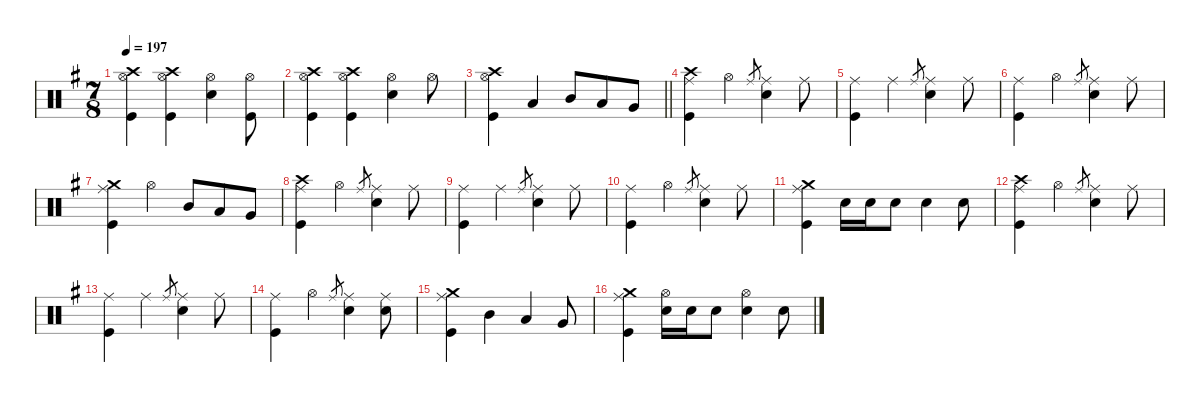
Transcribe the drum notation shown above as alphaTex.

\defaultSystemsLayout 4
\hideDynamics
\bracketExtendMode nobrackets
\singleTrackTrackNamePolicy hidden
\multiTrackTrackNamePolicy hidden
\firstSystemTrackNameMode fullname
\firstSystemTrackNameOrientation horizontal
\otherSystemsTrackNameOrientation horizontal
\track ("Drums" "drm.") {defaultSystemsLayout 4 instrument percussion}
\staff {score}
\articulation defaults
\ts (7 8)
\tempo 197
\clef neutral
\ks eminor
("Hi-Hat (open)"{acc forcenatural} "Crash high (hit)"{acc forcenatural} "Kick (hit)"{acc forcenatural}).4{dy f beam Down} ("Hi-Hat (open)"{acc forcenatural} "Crash high (hit)"{acc forcenatural} "Kick (hit)"{acc forcenatural}).4{beam Down} ("Hi-Hat (open)"{acc forcenatural} "Snare (hit) 2"{acc forcenatural}).4{beam Down} ("Hi-Hat (open)"{acc forcenatural} "Kick (hit)"{acc forcenatural}).8{beam Down} |
("Hi-Hat (open)"{acc forcenatural} "Crash high (hit)"{acc forcenatural} "Kick (hit)"{acc forcenatural}).4{beam Down} ("Hi-Hat (open)"{acc forcenatural} "Crash high (hit)"{acc forcenatural} "Kick (hit)"{acc forcenatural}).4{beam Down} ("Hi-Hat (open)"{acc forcenatural} "Snare (hit) 2"{acc forcenatural}).4{beam Down} "Hi-Hat (open)"{acc forcenatural}.8{beam Down} |
\barLineRight lightlight
("Hi-Hat (open)"{acc forcenatural} "Crash high (hit)"{acc forcenatural} "Kick (hit)"{acc forcenatural}).4{beam Down} "Low Tom (hit)"{acc forcenatural}.4{beam Up} "Mid Tom (hit)"{acc forcenatural}.8{beam Up} "Low Tom (hit)"{acc forcenatural}.8{beam Up} "Very Low Tom (hit)"{acc forcenatural}.8{beam Up} |
("Crash high (hit)"{acc forcenatural} "Ride (middle)"{acc forcenatural} "Kick (hit)"{acc forcenatural}).4{dy mf beam Down} "Hi-Hat (open)"{acc forcenatural}.4{dy f beam Down} "Ride (middle)"{acc forcenatural}.8{gr dy mf beam Up} ("Ride (middle)"{acc forcenatural} "Snare (hit) 2"{acc forcenatural}).4{dy f beam Down} "Ride (middle)"{acc forcenatural}.8{beam Down} |
("Ride (middle)"{acc forcenatural} "Kick (hit)"{acc forcenatural}).4{beam Down} "Ride (middle)"{acc forcenatural}.4{beam Down} "Ride (middle)"{acc forcenatural}.8{gr dy mf beam Up} ("Ride (middle)"{acc forcenatural} "Snare (hit) 2"{acc forcenatural}).4{dy f beam Down} "Ride (middle)"{acc forcenatural}.8{beam Down} |
("Ride (middle)"{acc forcenatural} "Kick (hit)"{acc forcenatural}).4{beam Down} "Hi-Hat (open)"{acc forcenatural}.4{beam Down} "Ride (middle)"{acc forcenatural}.8{gr dy mf beam Up} ("Ride (middle)"{acc forcenatural} "Snare (hit) 2"{acc forcenatural}).4{dy f beam Down} "Ride (middle)"{acc forcenatural}.8{beam Down} |
("Crash medium (hit)"{acc forcenatural} "Ride (middle)"{acc forcenatural} "Kick (hit)"{acc forcenatural}).4{dy mp beam Down} "Hi-Hat (open)"{acc forcenatural}.4{dy f beam Down} "Mid Tom (hit)"{acc forcenatural}.8{beam Up} "Low Tom (hit)"{acc forcenatural}.8{beam Up} "Very Low Tom (hit)"{acc forcenatural}.8{beam Up} |
("Crash high (hit)"{acc forcenatural} "Ride (middle)"{acc forcenatural} "Kick (hit)"{acc forcenatural}).4{dy mf beam Down} "Hi-Hat (open)"{acc forcenatural}.4{dy f beam Down} "Ride (middle)"{acc forcenatural}.8{gr dy mf beam Up} ("Ride (middle)"{acc forcenatural} "Snare (hit) 2"{acc forcenatural}).4{dy f beam Down} "Ride (middle)"{acc forcenatural}.8{beam Down} |
("Ride (middle)"{acc forcenatural} "Kick (hit)"{acc forcenatural}).4{beam Down} "Ride (middle)"{acc forcenatural}.4{beam Down} "Ride (middle)"{acc forcenatural}.8{gr dy mf beam Up} ("Ride (middle)"{acc forcenatural} "Snare (hit) 2"{acc forcenatural}).4{dy f beam Down} "Ride (middle)"{acc forcenatural}.8{beam Down} |
("Ride (middle)"{acc forcenatural} "Kick (hit)"{acc forcenatural}).4{beam Down} "Hi-Hat (open)"{acc forcenatural}.4{beam Down} "Ride (middle)"{acc forcenatural}.8{gr dy mf beam Up} ("Ride (middle)"{acc forcenatural} "Snare (hit) 2"{acc forcenatural}).4{dy f beam Down} "Ride (middle)"{acc forcenatural}.8{beam Down} |
("Crash medium (hit)"{acc forcenatural} "Ride (middle)"{acc forcenatural} "Kick (hit)"{acc forcenatural}).4{dy mp beam Down} "Snare (hit) 2"{acc forcenatural}.16{beam Down} "Snare (hit) 2"{acc forcenatural}.16{beam Down} "Snare (hit) 2"{acc forcenatural}.8{dy mf beam Down} "Snare (hit) 2"{acc forcenatural}.4{dy f beam Down} "Snare (hit) 2"{acc forcenatural}.8{beam Down} |
("Crash high (hit)"{acc forcenatural} "Ride (middle)"{acc forcenatural} "Kick (hit)"{acc forcenatural}).4{dy mf beam Down} "Hi-Hat (open)"{acc forcenatural}.4{dy f beam Down} "Ride (middle)"{acc forcenatural}.8{gr dy mf beam Up} ("Ride (middle)"{acc forcenatural} "Snare (hit) 2"{acc forcenatural}).4{dy f beam Down} "Ride (middle)"{acc forcenatural}.8{beam Down} |
("Ride (middle)"{acc forcenatural} "Kick (hit)"{acc forcenatural}).4{beam Down} "Ride (middle)"{acc forcenatural}.4{beam Down} "Ride (middle)"{acc forcenatural}.8{gr dy mf beam Up} ("Ride (middle)"{acc forcenatural} "Snare (hit) 2"{acc forcenatural}).4{dy f beam Down} "Ride (middle)"{acc forcenatural}.8{beam Down} |
("Ride (middle)"{acc forcenatural} "Kick (hit)"{acc forcenatural}).4{beam Down} "Hi-Hat (open)"{acc forcenatural}.4{beam Down} "Ride (middle)"{acc forcenatural}.8{gr dy mf beam Up} ("Ride (middle)"{acc forcenatural} "Snare (hit) 2"{acc forcenatural}).4{dy f beam Down} ("Ride (middle)"{acc forcenatural} "Snare (hit) 2"{acc forcenatural}).8{beam Down} |
("Crash medium (hit)"{acc forcenatural} "Ride (middle)"{acc forcenatural} "Kick (hit)"{acc forcenatural}).4{dy mp beam Down} "Mid Tom (hit)"{acc forcenatural}.4{dy f beam Down} "Low Tom (hit)"{acc forcenatural}.4{beam Up} "Very Low Tom (hit)"{acc forcenatural}.8{beam Up} |
("Crash medium (hit)"{acc forcenatural} "Ride (middle)"{acc forcenatural} "Kick (hit)"{acc forcenatural}).4{dy mp beam Down} ("Hi-Hat (open)"{acc forcenatural} "Snare (hit) 2"{acc forcenatural}).16{dy f beam Down} "Snare (hit) 2"{acc forcenatural}.16{dy mp beam Down} "Snare (hit) 2"{acc forcenatural}.8{dy mf beam Down} ("Hi-Hat (open)"{acc forcenatural} "Snare (hit) 2"{acc forcenatural}).4{dy f beam Down} "Snare (hit) 2"{acc forcenatural}.8{beam Down}
